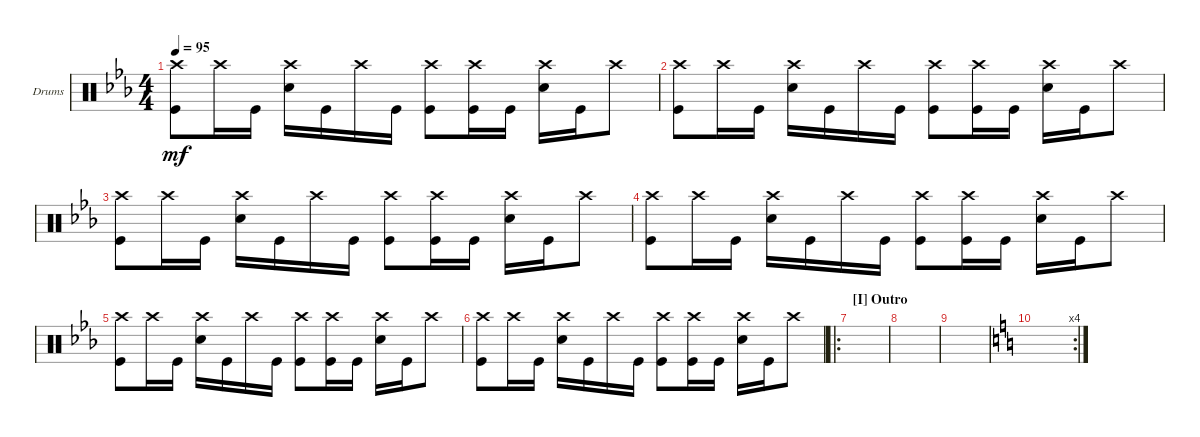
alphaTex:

\bracketExtendMode groupsimilarinstruments
\firstSystemTrackNameOrientation horizontal
\otherSystemsTrackNameOrientation horizontal
\track ("Drums" "Drums") {instrument percussion}
\staff {score}
\articulation defaults
\ts (4 4)
\tempo 95
\clef neutral
\scale
0.333333
\ks eb
("Kick (hit)" "Crash high (hit)").8{dy mf} "Crash high (hit)".16 "Kick (hit)".16 ("Snare (hit) 2" "Crash high (hit)").16 "Kick (hit)".16 "Crash high (hit)".16 "Kick (hit)".16 ("Kick (hit)" "Crash high (hit)").8 ("Kick (hit)" "Crash high (hit)").16 "Kick (hit)".16 ("Snare (hit) 2" "Crash high (hit)").16 "Kick (hit)".16 "Crash high (hit)".8 |
\scale
0.333333 ("Kick (hit)" "Crash high (hit)").8 "Crash high (hit)".16 "Kick (hit)".16 ("Snare (hit) 2" "Crash high (hit)").16 "Kick (hit)".16 "Crash high (hit)".16 "Kick (hit)".16 ("Kick (hit)" "Crash high (hit)").8 ("Kick (hit)" "Crash high (hit)").16 "Kick (hit)".16 ("Snare (hit) 2" "Crash high (hit)").16 "Kick (hit)".16 "Crash high (hit)".8 |
\scale
0.333333 ("Kick (hit)" "Crash high (hit)").8 "Crash high (hit)".16 "Kick (hit)".16 ("Snare (hit) 2" "Crash high (hit)").16 "Kick (hit)".16 "Crash high (hit)".16 "Kick (hit)".16 ("Kick (hit)" "Crash high (hit)").8 ("Kick (hit)" "Crash high (hit)").16 "Kick (hit)".16 ("Snare (hit) 2" "Crash high (hit)").16 "Kick (hit)".16 "Crash high (hit)".8 |
\scale
0.333333 ("Kick (hit)" "Crash high (hit)").8 "Crash high (hit)".16 "Kick (hit)".16 ("Snare (hit) 2" "Crash high (hit)").16 "Kick (hit)".16 "Crash high (hit)".16 "Kick (hit)".16 ("Kick (hit)" "Crash high (hit)").8 ("Kick (hit)" "Crash high (hit)").16 "Kick (hit)".16 ("Snare (hit) 2" "Crash high (hit)").16 "Kick (hit)".16 "Crash high (hit)".8 |
\scale
0.311475 ("Kick (hit)" "Crash high (hit)").8 "Crash high (hit)".16 "Kick (hit)".16 ("Snare (hit) 2" "Crash high (hit)").16 "Kick (hit)".16 "Crash high (hit)".16 "Kick (hit)".16 ("Kick (hit)" "Crash high (hit)").8 ("Kick (hit)" "Crash high (hit)").16 "Kick (hit)".16 ("Snare (hit) 2" "Crash high (hit)").16 "Kick (hit)".16 "Crash high (hit)".8 |
\section ("" "")
\scale
0.377049 ("Kick (hit)" "Crash high (hit)").8 "Crash high (hit)".16 "Kick (hit)".16 ("Snare (hit) 2" "Crash high (hit)").16 "Kick (hit)".16 "Crash high (hit)".16 "Kick (hit)".16 ("Kick (hit)" "Crash high (hit)").8 ("Kick (hit)" "Crash high (hit)").16 "Kick (hit)".16 ("Snare (hit) 2" "Crash high (hit)").16 "Kick (hit)".16 "Crash high (hit)".8 |
\ro
\section ("I" "Outro")
\scale
0.311475 |
|
|
\rc 4
\ks aminor
